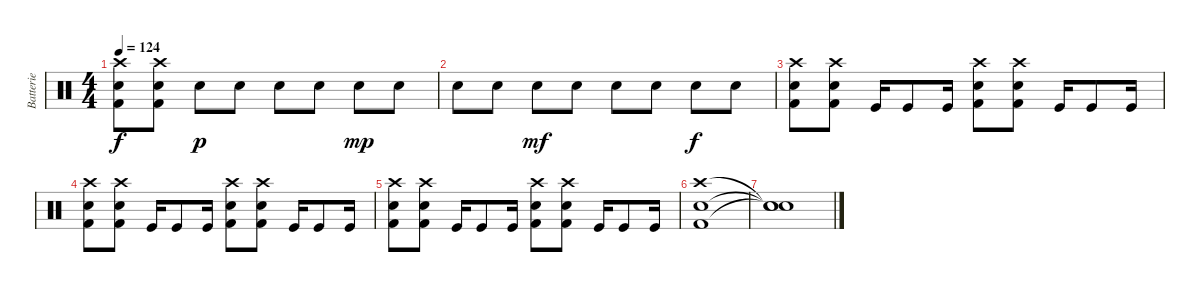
\track ("Batterie" "Batterie") {instrument percussion}
\staff {score}
\articulation defaults
\ts (4 4)
\tempo 124
\clef neutral
\ks c
("Crash high (hit)" "Snare (hit) 2" "Kick (hit) 2").8{dy f} ("Crash high (hit)" "Snare (hit) 2" "Kick (hit) 2").8 "Snare (hit) 2".8{dy p} "Snare (hit) 2".8 "Snare (hit) 2".8 "Snare (hit) 2".8 "Snare (hit) 2".8{dy mp} "Snare (hit) 2".8 |
"Snare (hit) 2".8 "Snare (hit) 2".8 "Snare (hit) 2".8{dy mf} "Snare (hit) 2".8 "Snare (hit) 2".8 "Snare (hit) 2".8 "Snare (hit) 2".8{dy f} "Snare (hit) 2".8 |
("Crash high (hit)" "Snare (hit) 2" "Kick (hit) 2").8 ("Crash high (hit)" "Snare (hit) 2" "Kick (hit) 2").8 "Kick (hit)".16 "Kick (hit)".8 "Kick (hit)".16 ("Crash high (hit)" "Snare (hit) 2" "Kick (hit) 2").8 ("Crash high (hit)" "Snare (hit) 2" "Kick (hit) 2").8 "Kick (hit)".16 "Kick (hit)".8 "Kick (hit)".16 |
("Crash high (hit)" "Snare (hit) 2" "Kick (hit) 2").8 ("Crash high (hit)" "Snare (hit) 2" "Kick (hit) 2").8 "Kick (hit)".16 "Kick (hit)".8 "Kick (hit)".16 ("Crash high (hit)" "Snare (hit) 2" "Kick (hit) 2").8 ("Crash high (hit)" "Snare (hit) 2" "Kick (hit) 2").8 "Kick (hit)".16 "Kick (hit)".8 "Kick (hit)".16 |
("Crash high (hit)" "Snare (hit) 2" "Kick (hit) 2").8 ("Crash high (hit)" "Snare (hit) 2" "Kick (hit) 2").8 "Kick (hit)".16 "Kick (hit)".8 "Kick (hit)".16 ("Crash high (hit)" "Snare (hit) 2" "Kick (hit) 2").8 ("Crash high (hit)" "Snare (hit) 2" "Kick (hit) 2").8 "Kick (hit)".16 "Kick (hit)".8 "Kick (hit)".16 |
("Crash high (hit)" "Snare (hit) 2" "Kick (hit) 2").1 |
("Snare (hit)"{t} "Snare (hit)"{t} "Snare (hit)"{t}).1
